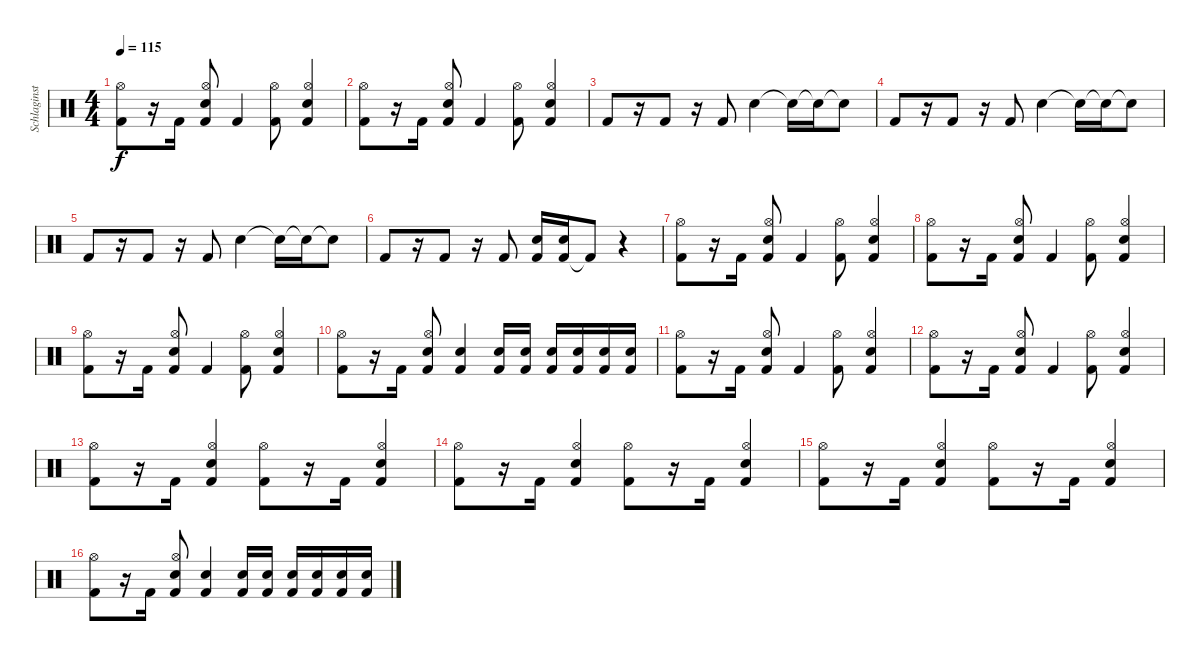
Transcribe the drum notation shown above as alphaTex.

\track ("Schlaginstrumente - Auswahl" "Schlaginst") {instrument percussion}
\staff {score}
\articulation defaults
\ts (4 4)
\tempo 115
\clef neutral
\ks c
("Kick (hit) 2" "Hi-Hat (open)").8{dy f} r.16 "Kick (hit) 2".16 ("Kick (hit) 2" "Snare (hit) 2" "Hi-Hat (open)").8 "Kick (hit) 2".4 ("Kick (hit) 2" "Hi-Hat (open)").8 ("Kick (hit) 2" "Snare (hit) 2" "Hi-Hat (open)").4 |
("Kick (hit) 2" "Hi-Hat (open)").8 r.16 "Kick (hit) 2".16 ("Kick (hit) 2" "Snare (hit) 2" "Hi-Hat (open)").8 "Kick (hit) 2".4 ("Kick (hit) 2" "Hi-Hat (open)").8 ("Kick (hit) 2" "Snare (hit) 2" "Hi-Hat (open)").4 |
"Kick (hit) 2".8 r.16 "Kick (hit) 2".8 r.16 "Kick (hit) 2".8 "Snare (hit) 2".4 "Snare (hit)"{t}.16 "Snare (hit)"{t}.16 "Snare (hit)"{t}.8 |
"Kick (hit) 2".8 r.16 "Kick (hit) 2".8 r.16 "Kick (hit) 2".8 "Snare (hit) 2".4 "Snare (hit)"{t}.16 "Snare (hit)"{t}.16 "Snare (hit)"{t}.8 |
"Kick (hit) 2".8 r.16 "Kick (hit) 2".8 r.16 "Kick (hit) 2".8 "Snare (hit) 2".4 "Snare (hit)"{t}.16 "Snare (hit)"{t}.16 "Snare (hit)"{t}.8 |
"Kick (hit) 2".8 r.16 "Kick (hit) 2".8 r.16 "Kick (hit) 2".8 ("Kick (hit) 2" "Snare (hit) 2").16 ("Kick (hit) 2" "Snare (hit) 2").16 "Kick (hit) 2"{t}.8 r.4 |
("Kick (hit) 2" "Hi-Hat (open)").8 r.16 "Kick (hit) 2".16 ("Kick (hit) 2" "Snare (hit) 2" "Hi-Hat (open)").8 "Kick (hit) 2".4 ("Kick (hit) 2" "Hi-Hat (open)").8 ("Kick (hit) 2" "Snare (hit) 2" "Hi-Hat (open)").4 |
("Kick (hit) 2" "Hi-Hat (open)").8 r.16 "Kick (hit) 2".16 ("Kick (hit) 2" "Snare (hit) 2" "Hi-Hat (open)").8 "Kick (hit) 2".4 ("Kick (hit) 2" "Hi-Hat (open)").8 ("Kick (hit) 2" "Snare (hit) 2" "Hi-Hat (open)").4 |
("Kick (hit) 2" "Hi-Hat (open)").8 r.16 "Kick (hit) 2".16 ("Kick (hit) 2" "Snare (hit) 2" "Hi-Hat (open)").8 "Kick (hit) 2".4 ("Kick (hit) 2" "Hi-Hat (open)").8 ("Kick (hit) 2" "Snare (hit) 2" "Hi-Hat (open)").4 |
("Kick (hit) 2" "Hi-Hat (open)").8 r.16 "Kick (hit) 2".16 ("Kick (hit) 2" "Snare (hit) 2" "Hi-Hat (open)").8 ("Kick (hit) 2" "Snare (hit) 2").4 ("Kick (hit) 2" "Snare (hit) 2").16 ("Kick (hit) 2" "Snare (hit) 2").16 ("Kick (hit) 2" "Snare (hit) 2").16 ("Kick (hit) 2" "Snare (hit) 2").16 ("Kick (hit) 2" "Snare (hit) 2").16 ("Kick (hit) 2" "Snare (hit) 2").16 |
("Kick (hit) 2" "Hi-Hat (open)").8 r.16 "Kick (hit) 2".16 ("Kick (hit) 2" "Snare (hit) 2" "Hi-Hat (open)").8 "Kick (hit) 2".4 ("Kick (hit) 2" "Hi-Hat (open)").8 ("Kick (hit) 2" "Snare (hit) 2" "Hi-Hat (open)").4 |
("Kick (hit) 2" "Hi-Hat (open)").8 r.16 "Kick (hit) 2".16 ("Kick (hit) 2" "Snare (hit) 2" "Hi-Hat (open)").8 "Kick (hit) 2".4 ("Kick (hit) 2" "Hi-Hat (open)").8 ("Kick (hit) 2" "Snare (hit) 2" "Hi-Hat (open)").4 |
("Kick (hit) 2" "Hi-Hat (open)").8 r.16 "Kick (hit) 2".16 ("Kick (hit) 2" "Snare (hit) 2" "Hi-Hat (open)").4 ("Kick (hit) 2" "Hi-Hat (open)").8 r.16 "Kick (hit) 2".16 ("Kick (hit) 2" "Snare (hit) 2" "Hi-Hat (open)").4 |
("Kick (hit) 2" "Hi-Hat (open)").8 r.16 "Kick (hit) 2".16 ("Kick (hit) 2" "Snare (hit) 2" "Hi-Hat (open)").4 ("Kick (hit) 2" "Hi-Hat (open)").8 r.16 "Kick (hit) 2".16 ("Kick (hit) 2" "Snare (hit) 2" "Hi-Hat (open)").4 |
("Kick (hit) 2" "Hi-Hat (open)").8 r.16 "Kick (hit) 2".16 ("Kick (hit) 2" "Snare (hit) 2" "Hi-Hat (open)").4 ("Kick (hit) 2" "Hi-Hat (open)").8 r.16 "Kick (hit) 2".16 ("Kick (hit) 2" "Snare (hit) 2" "Hi-Hat (open)").4 |
("Kick (hit) 2" "Hi-Hat (open)").8 r.16 "Kick (hit) 2".16 ("Kick (hit) 2" "Snare (hit) 2" "Hi-Hat (open)").8 ("Kick (hit) 2" "Snare (hit) 2").4 ("Kick (hit) 2" "Snare (hit) 2").16 ("Kick (hit) 2" "Snare (hit) 2").16 ("Kick (hit) 2" "Snare (hit) 2").16 ("Kick (hit) 2" "Snare (hit) 2").16 ("Kick (hit) 2" "Snare (hit) 2").16 ("Kick (hit) 2" "Snare (hit) 2").16
